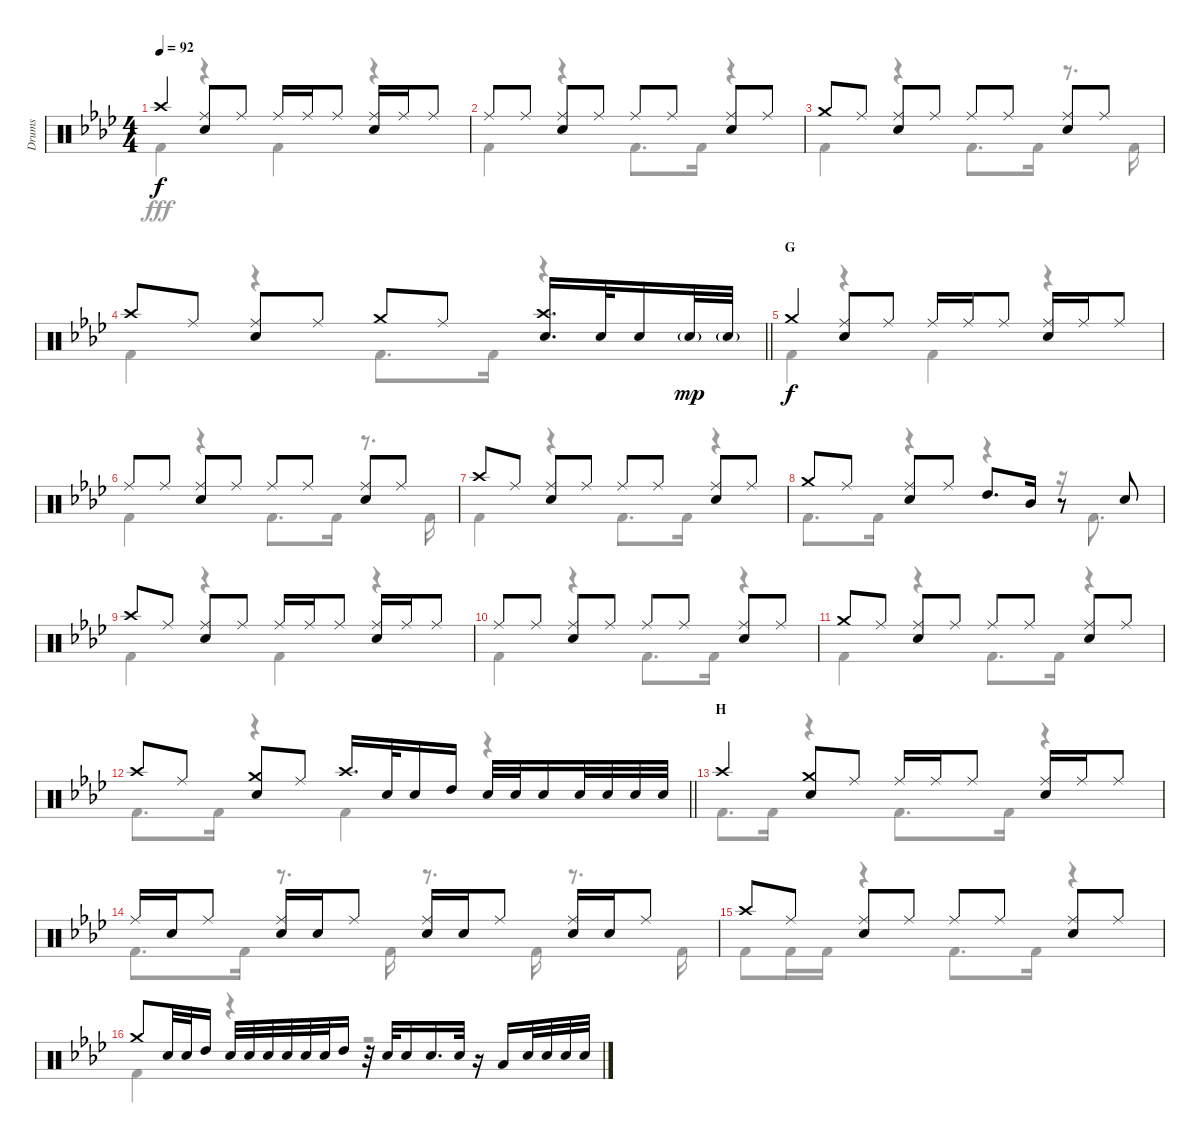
\track ("Drums" "Drums") {instrument percussion}
\staff {score}
\articulation defaults
\voice
\ts (4 4)
\tempo 92
\clef neutral
\ks ab "Crash high (hit)".4{dy f}
("Ride (middle)" "Snare (hit) 2").8 "Ride (middle)".8 "Ride (middle)".16 "Ride (middle)".16 "Ride (middle)".8 ("Ride (middle)" "Snare (hit) 2").16 "Ride (middle)".16 "Ride (middle)".8 |
"Ride (middle)".8 "Ride (middle)".8 ("Ride (middle)" "Snare (hit) 2").8 "Ride (middle)".8 "Ride (middle)".8 "Ride (middle)".8 ("Ride (middle)" "Snare (hit) 2").8 "Ride (middle)".8 |
"Crash medium (hit)".8 "Ride (middle)".8 ("Ride (middle)" "Snare (hit) 2").8 "Ride (middle)".8 "Ride (middle)".8 "Ride (middle)".8 ("Ride (middle)" "Snare (hit) 2").8 "Ride (middle)".8 |
\barLineRight lightlight "Crash high (hit)".8 "Ride (middle)".8
("Ride (middle)" "Snare (hit) 2").8 "Ride (middle)".8 "Crash medium (hit)".8 "Ride (middle)".8 ("Crash high (hit)" "Snare (hit) 2").16{d} "Snare (hit) 2".32 "Snare (hit) 2".16 "Snare (hit) 2"{g}.32{dy mp} "Snare (hit) 2"{g}.32 |
\section ("" "G")
"Crash medium (hit)".4{dy f} ("Ride (middle)" "Snare (hit) 2").8 "Ride (middle)".8 "Ride (middle)".16 "Ride (middle)".16 "Ride (middle)".8 ("Ride (middle)" "Snare (hit) 2").16 "Ride (middle)".16 "Ride (middle)".8 |
"Ride (middle)".8 "Ride (middle)".8 ("Ride (middle)" "Snare (hit) 2").8 "Ride (middle)".8 "Ride (middle)".8 "Ride (middle)".8 ("Ride (middle)" "Snare (hit) 2").8 "Ride (middle)".8 |
"Crash high (hit)".8 "Ride (middle)".8 ("Ride (middle)" "Snare (hit) 2").8 "Ride (middle)".8 "Ride (middle)".8 "Ride (middle)".8 ("Ride (middle)" "Snare (hit) 2").8 "Ride (middle)".8 |
"Crash medium (hit)".8 "Ride (middle)".8 ("Ride (middle)" "Snare (hit) 2").8 "Ride (middle)".8 "High Tom (hit)".8{d} "Mid Tom (hit)".16 r.8 "Snare (hit) 2".8 |
"Crash high (hit)".8 "Ride (middle)".8 ("Ride (middle)" "Snare (hit) 2").8 "Ride (middle)".8 "Ride (middle)".16 "Ride (middle)".16 "Ride (middle)".8 ("Ride (middle)" "Snare (hit) 2").16 "Ride (middle)".16 "Ride (middle)".8 |
"Ride (middle)".8 "Ride (middle)".8 ("Ride (middle)" "Snare (hit) 2").8 "Ride (middle)".8 "Ride (middle)".8 "Ride (middle)".8 ("Ride (middle)" "Snare (hit) 2").8 "Ride (middle)".8 |
"Crash medium (hit)".8 "Ride (middle)".8 ("Ride (middle)" "Snare (hit) 2").8 "Ride (middle)".8 "Ride (middle)".8 "Ride (middle)".8 ("Ride (middle)" "Snare (hit) 2").8 "Ride (middle)".8 |
\barLineRight lightlight "Crash high (hit)".8 "Ride (middle)".8
("Crash medium (hit)" "Snare (hit) 2").8 "Ride (middle)".8 "Crash high (hit)".16{d} "Snare (hit) 2".32 "Snare (hit) 2".16 "High Tom (hit)".16 "Snare (hit) 2".32 "Snare (hit) 2".32 "Snare (hit) 2".16 "Snare (hit) 2".32 "Snare (hit) 2".32 "Snare (hit) 2".32 "Snare (hit) 2".32 |
\section ("" "H")
"Crash high (hit)".4 ("Crash medium (hit)" "Snare (hit) 2").8 "Ride (middle)".8 "Ride (middle)".16 "Ride (middle)".16 "Ride (middle)".8 ("Ride (middle)" "Snare (hit) 2").16 "Ride (middle)".16 "Ride (middle)".8 |
"Ride (middle)".16 "Snare (hit) 2".16 "Ride (middle)".8 ("Ride (middle)" "Snare (hit) 2").16 "Snare (hit) 2".16 "Ride (middle)".8 ("Ride (middle)" "Snare (hit) 2").16 "Snare (hit) 2".16 "Ride (middle)".8 ("Ride (middle)" "Snare (hit) 2").16 "Snare (hit) 2".16 "Ride (middle)".8 |
"Crash high (hit)".8 "Ride (middle)".8 ("Ride (middle)" "Snare (hit) 2").8 "Ride (middle)".8 "Ride (middle)".8 "Ride (middle)".8 ("Ride (middle)" "Snare (hit) 2").8 "Ride (middle)".8 |
"Crash medium (hit)".8 "Snare (hit) 2".32 "Snare (hit) 2".32 "High Tom (hit)".16 "Snare (hit) 2".32 "Snare (hit) 2".32 "Snare (hit) 2".32 "Snare (hit) 2".32 "Snare (hit) 2".32 "Snare (hit) 2".32 "High Tom (hit)".16 r.32 "Snare (hit) 2".32 "Snare (hit) 2".16 "Snare (hit) 2".16{d} "Snare (hit) 2".32 r.16 "Low Tom (hit)".16 "Snare (hit) 2".32 "Snare (hit) 2".32 "Snare (hit) 2".32 "Snare (hit) 2".32
\voice
\clef neutral
\ottava regular
\simile none
\ks ab "Kick (hit) 2".4{dy fff}
r.4 "Kick (hit) 2".4 r.4 |
"Kick (hit) 2".4 r.4 "Kick (hit) 2".8{d} "Kick (hit) 2".16 r.4 |
"Kick (hit) 2".4 r.4 "Kick (hit) 2".8{d} "Kick (hit) 2".16 r.8{d} "Kick (hit) 2".16 |
\barLineRight lightlight "Kick (hit) 2".4
r.4 "Kick (hit) 2".8{d} "Kick (hit) 2".16 r.4 |
"Kick (hit) 2".4 r.4 "Kick (hit) 2".4 r.4 |
"Kick (hit) 2".4 r.4 "Kick (hit) 2".8{d} "Kick (hit) 2".16 r.8{d} "Kick (hit) 2".16 |
"Kick (hit) 2".4 r.4 "Kick (hit) 2".8{d} "Kick (hit) 2".16 r.4 |
"Kick (hit) 2".8{d} "Kick (hit) 2".16 r.4 r.4 r.16 "Kick (hit) 2".8{d} |
"Kick (hit) 2".4 r.4 "Kick (hit) 2".4 r.4 |
"Kick (hit) 2".4 r.4 "Kick (hit) 2".8{d} "Kick (hit) 2".16 r.4 |
"Kick (hit) 2".4 r.4 "Kick (hit) 2".8{d} "Kick (hit) 2".16 r.4 |
\barLineRight lightlight "Kick (hit) 2".8{d} "Kick (hit) 2".16
r.4 "Kick (hit) 2".4 r.4 |
"Kick (hit) 2".8{d} "Kick (hit) 2".16 r.4 "Kick (hit) 2".8{d} "Kick (hit) 2".16 r.4 |
"Kick (hit) 2".8{d} "Kick (hit) 2".16 r.8{d} "Kick (hit) 2".16 r.8{d} "Kick (hit) 2".16 r.8{d} "Kick (hit) 2".16 |
"Kick (hit) 2".8 "Kick (hit) 2".16 "Kick (hit) 2".16 r.4 "Kick (hit) 2".8{d} "Kick (hit) 2".16 r.4 |
"Kick (hit) 2".4 r.4 r.2
